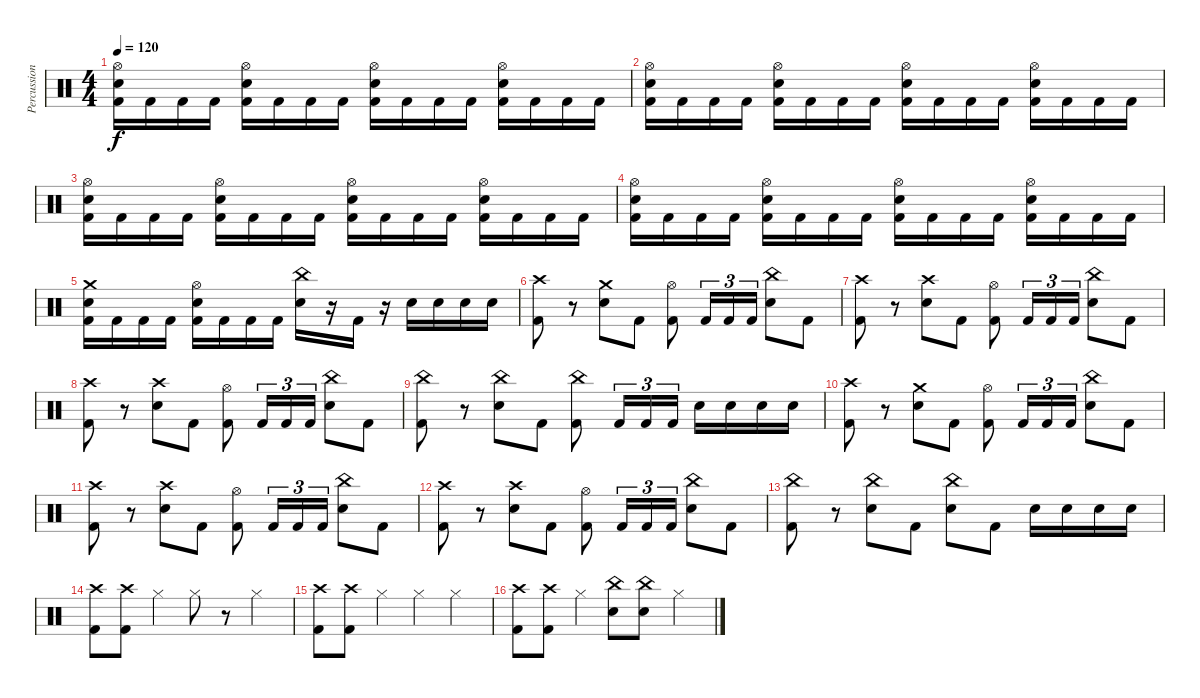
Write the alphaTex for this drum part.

\track ("Percussion" "Percussion") {instrument percussion}
\staff {score}
\articulation defaults
\ts (4 4)
\tempo 120
\clef neutral
\ks c
("Hi-Hat (open)" "Snare (hit) 2" "Kick (hit) 2").16{dy f} "Kick (hit) 2".16 "Kick (hit) 2".16 "Kick (hit) 2".16 ("Hi-Hat (open)" "Snare (hit) 2" "Kick (hit) 2").16 "Kick (hit) 2".16 "Kick (hit) 2".16 "Kick (hit) 2".16 ("Hi-Hat (open)" "Snare (hit) 2" "Kick (hit) 2").16 "Kick (hit) 2".16 "Kick (hit) 2".16 "Kick (hit) 2".16 ("Hi-Hat (open)" "Snare (hit) 2" "Kick (hit) 2").16 "Kick (hit) 2".16 "Kick (hit) 2".16 "Kick (hit) 2".16 |
("Hi-Hat (open)" "Snare (hit) 2" "Kick (hit) 2").16 "Kick (hit) 2".16 "Kick (hit) 2".16 "Kick (hit) 2".16 ("Hi-Hat (open)" "Snare (hit) 2" "Kick (hit) 2").16 "Kick (hit) 2".16 "Kick (hit) 2".16 "Kick (hit) 2".16 ("Hi-Hat (open)" "Snare (hit) 2" "Kick (hit) 2").16 "Kick (hit) 2".16 "Kick (hit) 2".16 "Kick (hit) 2".16 ("Hi-Hat (open)" "Snare (hit) 2" "Kick (hit) 2").16 "Kick (hit) 2".16 "Kick (hit) 2".16 "Kick (hit) 2".16 |
("Hi-Hat (open)" "Snare (hit) 2" "Kick (hit) 2").16 "Kick (hit) 2".16 "Kick (hit) 2".16 "Kick (hit) 2".16 ("Hi-Hat (open)" "Snare (hit) 2" "Kick (hit) 2").16 "Kick (hit) 2".16 "Kick (hit) 2".16 "Kick (hit) 2".16 ("Hi-Hat (open)" "Snare (hit) 2" "Kick (hit) 2").16 "Kick (hit) 2".16 "Kick (hit) 2".16 "Kick (hit) 2".16 ("Hi-Hat (open)" "Snare (hit) 2" "Kick (hit) 2").16 "Kick (hit) 2".16 "Kick (hit) 2".16 "Kick (hit) 2".16 |
("Hi-Hat (open)" "Snare (hit) 2" "Kick (hit) 2").16 "Kick (hit) 2".16 "Kick (hit) 2".16 "Kick (hit) 2".16 ("Hi-Hat (open)" "Snare (hit) 2" "Kick (hit) 2").16 "Kick (hit) 2".16 "Kick (hit) 2".16 "Kick (hit) 2".16 ("Hi-Hat (open)" "Snare (hit) 2" "Kick (hit) 2").16 "Kick (hit) 2".16 "Kick (hit) 2".16 "Kick (hit) 2".16 ("Hi-Hat (open)" "Snare (hit) 2" "Kick (hit) 2").16 "Kick (hit) 2".16 "Kick (hit) 2".16 "Kick (hit) 2".16 |
("Crash medium (hit)" "Snare (hit) 2" "Kick (hit) 2").16 "Kick (hit) 2".16 "Kick (hit) 2".16 "Kick (hit) 2".16 ("Hi-Hat (open)" "Snare (hit) 2" "Kick (hit) 2").16 "Kick (hit) 2".16 "Kick (hit) 2".16 "Kick (hit) 2".16 ("China (hit)" "Snare (hit) 2").16 r.16 "Kick (hit) 2".16 r.16 "Snare (hit) 2".16 "Snare (hit) 2".16 "Snare (hit) 2".16 "Snare (hit) 2".16 |
("Crash high (hit)" "Kick (hit) 2").8 r.8 ("Crash medium (hit)" "Snare (hit) 2").8 "Kick (hit) 2".8 ("Hi-Hat (open)" "Kick (hit) 2").8 "Kick (hit) 2".16{tu (3 2)} "Kick (hit) 2".16{tu (3 2)} "Kick (hit) 2".16{tu (3 2)} ("China (hit)" "Snare (hit) 2").8 "Kick (hit) 2".8 |
("Crash high (hit)" "Kick (hit) 2").8 r.8 ("Crash high (hit)" "Snare (hit) 2").8 "Kick (hit) 2".8 ("Hi-Hat (open)" "Kick (hit) 2").8 "Kick (hit) 2".16{tu (3 2)} "Kick (hit) 2".16{tu (3 2)} "Kick (hit) 2".16{tu (3 2)} ("China (hit)" "Snare (hit) 2").8 "Kick (hit) 2".8 |
("Crash high (hit)" "Kick (hit) 2").8 r.8 ("Crash high (hit)" "Snare (hit) 2").8 "Kick (hit) 2".8 ("Hi-Hat (open)" "Kick (hit) 2").8 "Kick (hit) 2".16{tu (3 2)} "Kick (hit) 2".16{tu (3 2)} "Kick (hit) 2".16{tu (3 2)} ("China (hit)" "Snare (hit) 2").8 "Kick (hit) 2".8 |
("China (hit)" "Kick (hit) 2").8 r.8 ("China (hit)" "Snare (hit) 2").8 "Kick (hit) 2".8 ("China (hit)" "Kick (hit) 2").8 "Kick (hit) 2".16{tu (3 2)} "Kick (hit) 2".16{tu (3 2)} "Kick (hit) 2".16{tu (3 2)} "Snare (hit) 2".16 "Snare (hit) 2".16 "Snare (hit) 2".16 "Snare (hit) 2".16 |
("Crash high (hit)" "Kick (hit) 2").8 r.8 ("Crash medium (hit)" "Snare (hit) 2").8 "Kick (hit) 2".8 ("Hi-Hat (open)" "Kick (hit) 2").8 "Kick (hit) 2".16{tu (3 2)} "Kick (hit) 2".16{tu (3 2)} "Kick (hit) 2".16{tu (3 2)} ("China (hit)" "Snare (hit) 2").8 "Kick (hit) 2".8 |
("Crash high (hit)" "Kick (hit) 2").8 r.8 ("Crash high (hit)" "Snare (hit) 2").8 "Kick (hit) 2".8 ("Hi-Hat (open)" "Kick (hit) 2").8 "Kick (hit) 2".16{tu (3 2)} "Kick (hit) 2".16{tu (3 2)} "Kick (hit) 2".16{tu (3 2)} ("China (hit)" "Snare (hit) 2").8 "Kick (hit) 2".8 |
("Crash high (hit)" "Kick (hit) 2").8 r.8 ("Crash high (hit)" "Snare (hit) 2").8 "Kick (hit) 2".8 ("Hi-Hat (open)" "Kick (hit) 2").8 "Kick (hit) 2".16{tu (3 2)} "Kick (hit) 2".16{tu (3 2)} "Kick (hit) 2".16{tu (3 2)} ("China (hit)" "Snare (hit) 2").8 "Kick (hit) 2".8 |
("China (hit)" "Kick (hit) 2").8 r.8 ("China (hit)" "Snare (hit) 2").8 "Kick (hit) 2".8 ("China (hit)" "Snare (hit) 2").8 "Kick (hit) 2".8 "Snare (hit) 2".16 "Snare (hit) 2".16 "Snare (hit) 2".16 "Snare (hit) 2".16 |
("Crash high (hit)" "Kick (hit) 2").8 ("Crash high (hit)" "Kick (hit) 2").8 "Hi-Hat (closed)".4 "Hi-Hat (closed)".8 r.8 "Hi-Hat (closed)".4 |
("Crash high (hit)" "Kick (hit) 2").8 ("Crash high (hit)" "Kick (hit) 2").8 "Hi-Hat (closed)".4 "Hi-Hat (closed)".4 "Hi-Hat (closed)".4 |
("Crash high (hit)" "Kick (hit) 2").8 ("Crash high (hit)" "Kick (hit) 2").8 "Hi-Hat (closed)".4 ("China (hit)" "Snare (hit) 2").8 ("China (hit)" "Snare (hit) 2").8 "Hi-Hat (closed)".4
